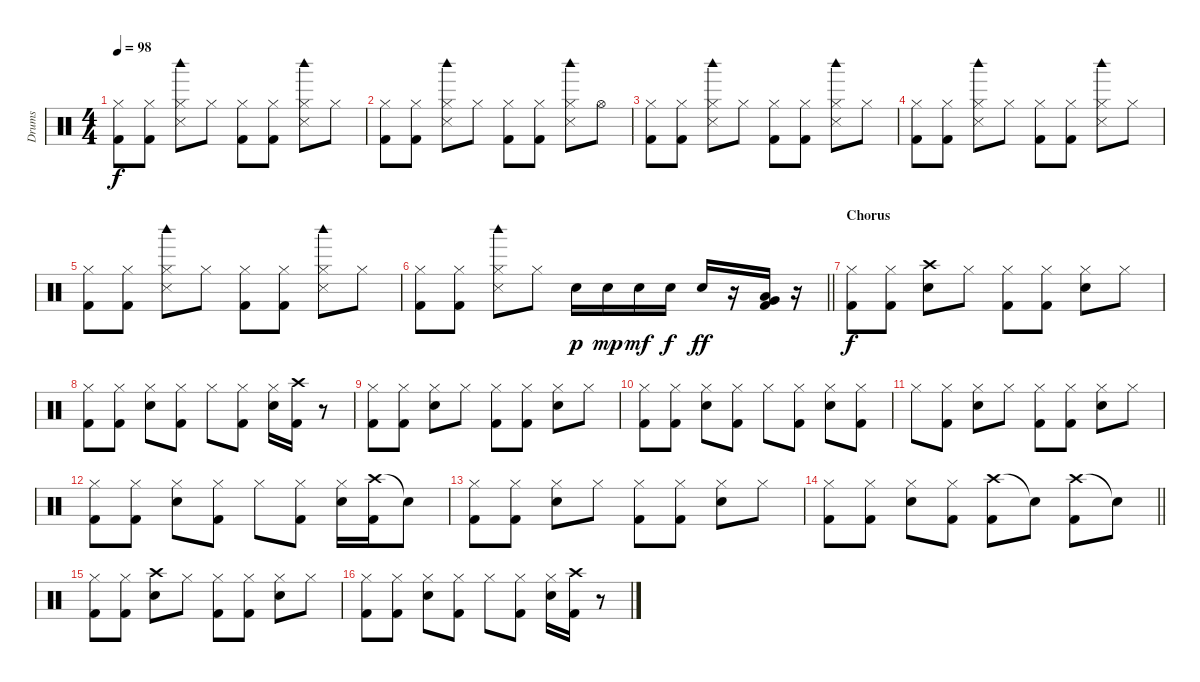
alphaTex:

\track ("Drums" "Drums") {instrument percussion}
\staff {score}
\articulation defaults
\ts (4 4)
\tempo 98
\clef neutral
\ks c
("Hi-Hat (closed)" "Kick (hit) 2").8{dy f} ("Hi-Hat (closed)" "Kick (hit) 2").8 ("Hi-Hat (closed)" "Metronome (hit)" "Woodblock high (hit)").8 "Hi-Hat (closed)".8 ("Hi-Hat (closed)" "Kick (hit) 2").8 ("Hi-Hat (closed)" "Kick (hit) 2").8 ("Hi-Hat (closed)" "Metronome (hit)" "Woodblock high (hit)").8 "Hi-Hat (closed)".8 |
("Hi-Hat (closed)" "Kick (hit) 2").8 ("Hi-Hat (closed)" "Kick (hit) 2").8 ("Hi-Hat (closed)" "Metronome (hit)" "Woodblock high (hit)").8 "Hi-Hat (closed)".8 ("Hi-Hat (closed)" "Kick (hit) 2").8 ("Hi-Hat (closed)" "Kick (hit) 2").8 ("Hi-Hat (closed)" "Metronome (hit)" "Woodblock high (hit)").8 "Hi-Hat (open)".8 |
("Hi-Hat (closed)" "Kick (hit) 2").8 ("Hi-Hat (closed)" "Kick (hit) 2").8 ("Hi-Hat (closed)" "Metronome (hit)" "Woodblock high (hit)").8 "Hi-Hat (closed)".8 ("Hi-Hat (closed)" "Kick (hit) 2").8 ("Hi-Hat (closed)" "Kick (hit) 2").8 ("Hi-Hat (closed)" "Metronome (hit)" "Woodblock high (hit)").8 "Hi-Hat (closed)".8 |
("Hi-Hat (closed)" "Kick (hit) 2").8 ("Hi-Hat (closed)" "Kick (hit) 2").8 ("Hi-Hat (closed)" "Metronome (hit)" "Woodblock high (hit)").8 "Hi-Hat (closed)".8 ("Hi-Hat (closed)" "Kick (hit) 2").8 ("Hi-Hat (closed)" "Kick (hit) 2").8 ("Hi-Hat (closed)" "Metronome (hit)" "Woodblock high (hit)").8 "Hi-Hat (closed)".8 |
("Hi-Hat (closed)" "Kick (hit) 2").8 ("Hi-Hat (closed)" "Kick (hit) 2").8 ("Hi-Hat (closed)" "Metronome (hit)" "Woodblock high (hit)").8 "Hi-Hat (closed)".8 ("Hi-Hat (closed)" "Kick (hit) 2").8 ("Hi-Hat (closed)" "Kick (hit) 2").8 ("Hi-Hat (closed)" "Metronome (hit)" "Woodblock high (hit)").8 "Hi-Hat (closed)".8 |
\barLineRight lightlight
("Hi-Hat (closed)" "Kick (hit) 2").8 ("Hi-Hat (closed)" "Kick (hit) 2").8 ("Hi-Hat (closed)" "Metronome (hit)" "Woodblock high (hit)").8 "Hi-Hat (closed)".8 "Snare (hit) 2".16{dy p} "Snare (hit) 2".16{dy mp} "Snare (hit) 2".16{dy mf} "Snare (hit) 2".16{dy f} "Snare (hit) 2".16{dy ff} r.16 ("Very Low Tom (hit)" "Low Floor Tom (hit)" "Kick (hit) 2").16 r.16 |
\section ("" "Chorus")
("Hi-Hat (closed)" "Kick (hit) 2").8{dy f} ("Hi-Hat (closed)" "Kick (hit) 2").8 ("Crash high (hit)" "Snare (hit) 2").8 "Hi-Hat (closed)".8 ("Hi-Hat (closed)" "Kick (hit) 2").8 ("Hi-Hat (closed)" "Kick (hit) 2").8 ("Hi-Hat (closed)" "Snare (hit) 2").8 "Hi-Hat (closed)".8 |
("Hi-Hat (closed)" "Kick (hit) 2").8 ("Hi-Hat (closed)" "Kick (hit) 2").8 ("Hi-Hat (closed)" "Snare (hit) 2").8 ("Hi-Hat (closed)" "Kick (hit) 2").8 "Hi-Hat (closed)".8 ("Hi-Hat (closed)" "Kick (hit) 2").8 ("Hi-Hat (closed)" "Snare (hit) 2").16 ("Crash high (hit)" "Kick (hit) 2").16 r.8 |
("Hi-Hat (closed)" "Kick (hit) 2").8 ("Hi-Hat (closed)" "Kick (hit) 2").8 ("Hi-Hat (closed)" "Snare (hit) 2").8 "Hi-Hat (closed)".8 ("Hi-Hat (closed)" "Kick (hit) 2").8 ("Hi-Hat (closed)" "Kick (hit) 2").8 ("Hi-Hat (closed)" "Snare (hit) 2").8 "Hi-Hat (closed)".8 |
("Hi-Hat (closed)" "Kick (hit) 2").8 ("Hi-Hat (closed)" "Kick (hit) 2").8 ("Hi-Hat (closed)" "Snare (hit) 2").8 ("Hi-Hat (closed)" "Kick (hit) 2").8 "Hi-Hat (closed)".8 ("Hi-Hat (closed)" "Kick (hit) 2").8 ("Hi-Hat (closed)" "Snare (hit) 2").8 ("Hi-Hat (closed)" "Kick (hit) 2").8 |
"Hi-Hat (closed)".8 ("Hi-Hat (closed)" "Kick (hit) 2").8 ("Hi-Hat (closed)" "Snare (hit) 2").8 "Hi-Hat (closed)".8 ("Hi-Hat (closed)" "Kick (hit) 2").8 ("Hi-Hat (closed)" "Kick (hit) 2").8 ("Hi-Hat (closed)" "Snare (hit) 2").8 "Hi-Hat (closed)".8 |
("Hi-Hat (closed)" "Kick (hit) 2").8 ("Hi-Hat (closed)" "Kick (hit) 2").8 ("Hi-Hat (closed)" "Snare (hit) 2").8 ("Hi-Hat (closed)" "Kick (hit) 2").8 "Hi-Hat (closed)".8 ("Hi-Hat (closed)" "Kick (hit) 2").8 ("Hi-Hat (closed)" "Snare (hit) 2").16 ("Crash high (hit)" "Kick (hit) 2").16 "Snare (hit)"{t}.8 |
("Hi-Hat (closed)" "Kick (hit) 2").8 ("Hi-Hat (closed)" "Kick (hit) 2").8 ("Hi-Hat (closed)" "Snare (hit) 2").8 "Hi-Hat (closed)".8 ("Hi-Hat (closed)" "Kick (hit) 2").8 ("Hi-Hat (closed)" "Kick (hit) 2").8 ("Hi-Hat (closed)" "Snare (hit) 2").8 "Hi-Hat (closed)".8 |
\barLineRight lightlight
("Hi-Hat (closed)" "Kick (hit) 2").8 ("Hi-Hat (closed)" "Kick (hit) 2").8 ("Hi-Hat (closed)" "Snare (hit) 2").8 ("Hi-Hat (closed)" "Kick (hit) 2").8 ("Crash high (hit)" "Kick (hit) 2").8 "Snare (hit)"{t}.8 ("Crash high (hit)" "Kick (hit) 2").8 "Snare (hit)"{t}.8 |
("Hi-Hat (closed)" "Kick (hit) 2").8 ("Hi-Hat (closed)" "Kick (hit) 2").8 ("Crash high (hit)" "Snare (hit) 2").8 "Hi-Hat (closed)".8 ("Hi-Hat (closed)" "Kick (hit) 2").8 ("Hi-Hat (closed)" "Kick (hit) 2").8 ("Hi-Hat (closed)" "Snare (hit) 2").8 "Hi-Hat (closed)".8 |
("Hi-Hat (closed)" "Kick (hit) 2").8 ("Hi-Hat (closed)" "Kick (hit) 2").8 ("Hi-Hat (closed)" "Snare (hit) 2").8 ("Hi-Hat (closed)" "Kick (hit) 2").8 "Hi-Hat (closed)".8 ("Hi-Hat (closed)" "Kick (hit) 2").8 ("Hi-Hat (closed)" "Snare (hit) 2").16 ("Crash high (hit)" "Kick (hit) 2").16 r.8
